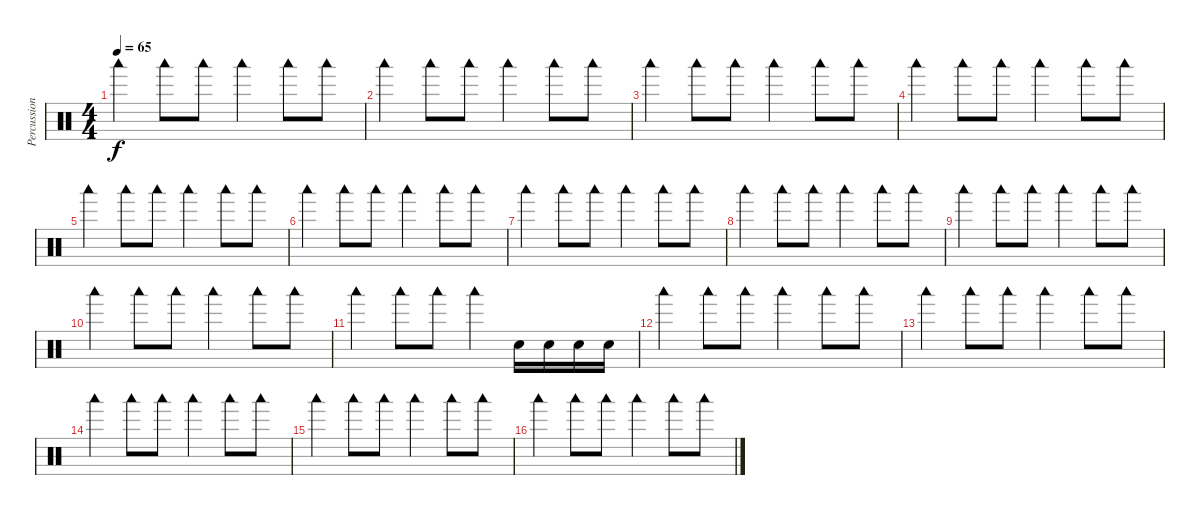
\track ("Percussions" "Percussion") {instrument percussion}
\staff {score}
\articulation defaults
\ts (4 4)
\tempo 65
\clef neutral
\ks c "Woodblock low (hit)".4{dy f} "Woodblock low (hit)".8 "Woodblock low (hit)".8 "Woodblock low (hit)".4 "Woodblock low (hit)".8 "Woodblock low (hit)".8
|
"Woodblock low (hit)".4 "Woodblock low (hit)".8 "Woodblock low (hit)".8 "Woodblock low (hit)".4 "Woodblock low (hit)".8 "Woodblock low (hit)".8 |
"Woodblock low (hit)".4 "Woodblock low (hit)".8 "Woodblock low (hit)".8 "Woodblock low (hit)".4 "Woodblock low (hit)".8 "Woodblock low (hit)".8 |
"Woodblock low (hit)".4 "Woodblock low (hit)".8 "Woodblock low (hit)".8 "Woodblock low (hit)".4 "Woodblock low (hit)".8 "Woodblock low (hit)".8 |
"Woodblock low (hit)".4 "Woodblock low (hit)".8 "Woodblock low (hit)".8 "Woodblock low (hit)".4 "Woodblock low (hit)".8 "Woodblock low (hit)".8 |
"Woodblock low (hit)".4 "Woodblock low (hit)".8 "Woodblock low (hit)".8 "Woodblock low (hit)".4 "Woodblock low (hit)".8 "Woodblock low (hit)".8 |
"Woodblock low (hit)".4 "Woodblock low (hit)".8 "Woodblock low (hit)".8 "Woodblock low (hit)".4 "Woodblock low (hit)".8 "Woodblock low (hit)".8 |
"Woodblock low (hit)".4 "Woodblock low (hit)".8 "Woodblock low (hit)".8 "Woodblock low (hit)".4 "Woodblock low (hit)".8 "Woodblock low (hit)".8 |
"Woodblock low (hit)".4 "Woodblock low (hit)".8 "Woodblock low (hit)".8 "Woodblock low (hit)".4 "Woodblock low (hit)".8 "Woodblock low (hit)".8 |
"Woodblock low (hit)".4 "Woodblock low (hit)".8 "Woodblock low (hit)".8 "Woodblock low (hit)".4 "Woodblock low (hit)".8 "Woodblock low (hit)".8 |
"Woodblock low (hit)".4 "Woodblock low (hit)".8 "Woodblock low (hit)".8 "Woodblock low (hit)".4 "Electric Snare (hit)".16 "Electric Snare (hit)".16 "Electric Snare (hit)".16 "Electric Snare (hit)".16 |
"Woodblock low (hit)".4 "Woodblock low (hit)".8 "Woodblock low (hit)".8 "Woodblock low (hit)".4 "Woodblock low (hit)".8 "Woodblock low (hit)".8 |
"Woodblock low (hit)".4 "Woodblock low (hit)".8 "Woodblock low (hit)".8 "Woodblock low (hit)".4 "Woodblock low (hit)".8 "Woodblock low (hit)".8 |
"Woodblock low (hit)".4 "Woodblock low (hit)".8 "Woodblock low (hit)".8 "Woodblock low (hit)".4 "Woodblock low (hit)".8 "Woodblock low (hit)".8 |
"Woodblock low (hit)".4 "Woodblock low (hit)".8 "Woodblock low (hit)".8 "Woodblock low (hit)".4 "Woodblock low (hit)".8 "Woodblock low (hit)".8 |
"Woodblock low (hit)".4 "Woodblock low (hit)".8 "Woodblock low (hit)".8 "Woodblock low (hit)".4 "Woodblock low (hit)".8 "Woodblock low (hit)".8
